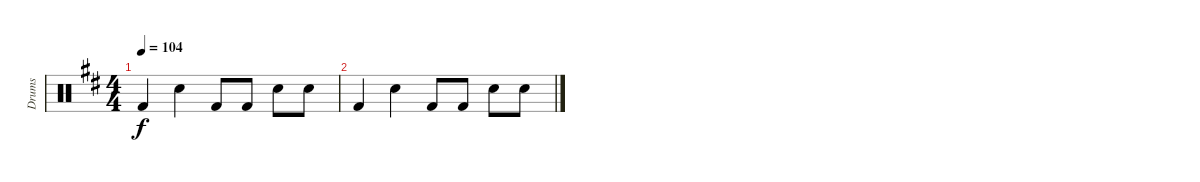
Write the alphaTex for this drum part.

\track ("Drums" "Drums") {instrument percussion}
\staff {score}
\articulation defaults
\ts (4 4)
\tempo 104
\clef neutral
\ks d "Kick (hit) 2".4{dy f} "Electric Snare (hit)".4 "Kick (hit) 2".8 "Kick (hit) 2".8 "Electric Snare (hit)".8 "Electric Snare (hit)".8
|
"Kick (hit) 2".4 "Electric Snare (hit)".4 "Kick (hit) 2".8 "Kick (hit) 2".8 "Electric Snare (hit)".8 "Electric Snare (hit)".8
